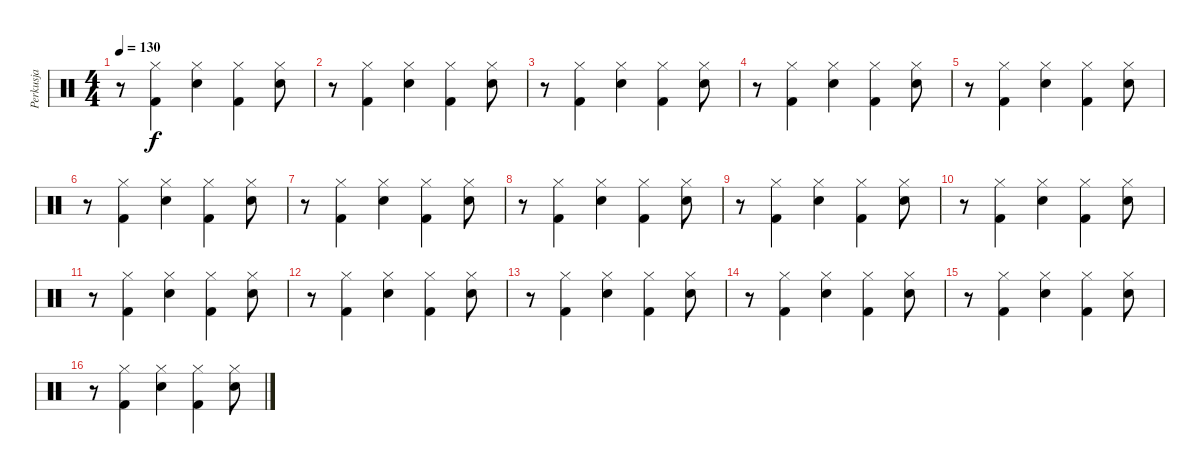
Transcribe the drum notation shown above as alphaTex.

\track ("Perkusja" "Perkusja") {instrument percussion}
\staff {score}
\articulation defaults
\ts (4 4)
\tempo 130
\clef neutral
\ks c
r.8{dy f} ("Hi-Hat (closed)" "Kick (hit) 2").4 ("Hi-Hat (closed)" "Snare (hit) 2").4 ("Hi-Hat (closed)" "Kick (hit) 2").4 ("Hi-Hat (closed)" "Snare (hit) 2").8 |
r.8 ("Hi-Hat (closed)" "Kick (hit) 2").4 ("Hi-Hat (closed)" "Snare (hit) 2").4 ("Hi-Hat (closed)" "Kick (hit) 2").4 ("Hi-Hat (closed)" "Snare (hit) 2").8 |
r.8 ("Hi-Hat (closed)" "Kick (hit) 2").4 ("Hi-Hat (closed)" "Snare (hit) 2").4 ("Hi-Hat (closed)" "Kick (hit) 2").4 ("Hi-Hat (closed)" "Snare (hit) 2").8 |
r.8 ("Hi-Hat (closed)" "Kick (hit) 2").4 ("Hi-Hat (closed)" "Snare (hit) 2").4 ("Hi-Hat (closed)" "Kick (hit) 2").4 ("Hi-Hat (closed)" "Snare (hit) 2").8 |
r.8 ("Hi-Hat (closed)" "Kick (hit) 2").4 ("Hi-Hat (closed)" "Snare (hit) 2").4 ("Hi-Hat (closed)" "Kick (hit) 2").4 ("Hi-Hat (closed)" "Snare (hit) 2").8 |
r.8 ("Hi-Hat (closed)" "Kick (hit) 2").4 ("Hi-Hat (closed)" "Snare (hit) 2").4 ("Hi-Hat (closed)" "Kick (hit) 2").4 ("Hi-Hat (closed)" "Snare (hit) 2").8 |
r.8 ("Hi-Hat (closed)" "Kick (hit) 2").4 ("Hi-Hat (closed)" "Snare (hit) 2").4 ("Hi-Hat (closed)" "Kick (hit) 2").4 ("Hi-Hat (closed)" "Snare (hit) 2").8 |
r.8 ("Hi-Hat (closed)" "Kick (hit) 2").4 ("Hi-Hat (closed)" "Snare (hit) 2").4 ("Hi-Hat (closed)" "Kick (hit) 2").4 ("Hi-Hat (closed)" "Snare (hit) 2").8 |
r.8 ("Hi-Hat (closed)" "Kick (hit) 2").4 ("Hi-Hat (closed)" "Snare (hit) 2").4 ("Hi-Hat (closed)" "Kick (hit) 2").4 ("Hi-Hat (closed)" "Snare (hit) 2").8 |
r.8 ("Hi-Hat (closed)" "Kick (hit) 2").4 ("Hi-Hat (closed)" "Snare (hit) 2").4 ("Hi-Hat (closed)" "Kick (hit) 2").4 ("Hi-Hat (closed)" "Snare (hit) 2").8 |
r.8 ("Hi-Hat (closed)" "Kick (hit) 2").4 ("Hi-Hat (closed)" "Snare (hit) 2").4 ("Hi-Hat (closed)" "Kick (hit) 2").4 ("Hi-Hat (closed)" "Snare (hit) 2").8 |
r.8 ("Hi-Hat (closed)" "Kick (hit) 2").4 ("Hi-Hat (closed)" "Snare (hit) 2").4 ("Hi-Hat (closed)" "Kick (hit) 2").4 ("Hi-Hat (closed)" "Snare (hit) 2").8 |
r.8 ("Hi-Hat (closed)" "Kick (hit) 2").4 ("Hi-Hat (closed)" "Snare (hit) 2").4 ("Hi-Hat (closed)" "Kick (hit) 2").4 ("Hi-Hat (closed)" "Snare (hit) 2").8 |
r.8 ("Hi-Hat (closed)" "Kick (hit) 2").4 ("Hi-Hat (closed)" "Snare (hit) 2").4 ("Hi-Hat (closed)" "Kick (hit) 2").4 ("Hi-Hat (closed)" "Snare (hit) 2").8 |
r.8 ("Hi-Hat (closed)" "Kick (hit) 2").4 ("Hi-Hat (closed)" "Snare (hit) 2").4 ("Hi-Hat (closed)" "Kick (hit) 2").4 ("Hi-Hat (closed)" "Snare (hit) 2").8 |
r.8 ("Hi-Hat (closed)" "Kick (hit) 2").4 ("Hi-Hat (closed)" "Snare (hit) 2").4 ("Hi-Hat (closed)" "Kick (hit) 2").4 ("Hi-Hat (closed)" "Snare (hit) 2").8
